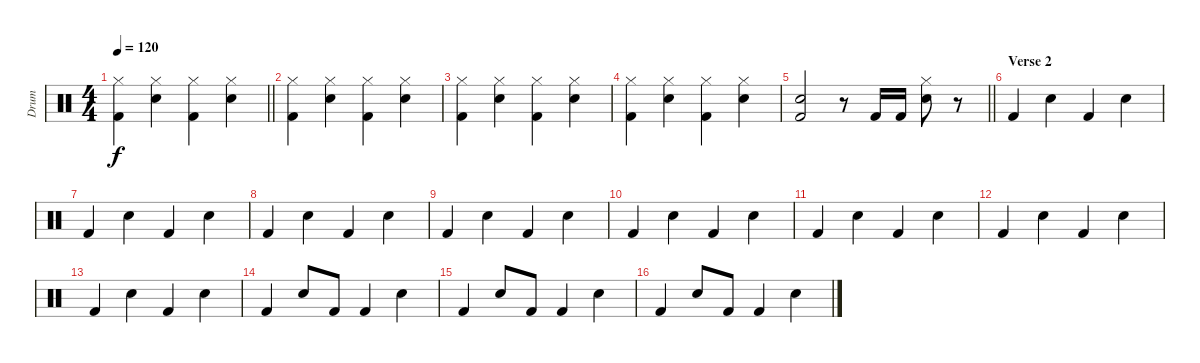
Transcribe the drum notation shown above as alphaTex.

\track ("Drum" "Drum") {instrument percussion}
\staff {score}
\articulation defaults
\ts (4 4)
\tempo 120
\clef neutral
\barLineRight lightlight
\ks c
("Hi-Hat (closed)" "Kick (hit) 2").4{dy f} ("Hi-Hat (closed)" "Electric Snare (hit)").4 ("Hi-Hat (closed)" "Kick (hit) 2").4 ("Hi-Hat (closed)" "Electric Snare (hit)").4 |
("Hi-Hat (closed)" "Kick (hit) 2").4 ("Hi-Hat (closed)" "Electric Snare (hit)").4 ("Hi-Hat (closed)" "Kick (hit) 2").4 ("Hi-Hat (closed)" "Electric Snare (hit)").4 |
("Hi-Hat (closed)" "Kick (hit) 2").4 ("Hi-Hat (closed)" "Electric Snare (hit)").4 ("Hi-Hat (closed)" "Kick (hit) 2").4 ("Hi-Hat (closed)" "Electric Snare (hit)").4 |
("Hi-Hat (closed)" "Kick (hit) 2").4 ("Hi-Hat (closed)" "Electric Snare (hit)").4 ("Hi-Hat (closed)" "Kick (hit) 2").4 ("Hi-Hat (closed)" "Electric Snare (hit)").4 |
\barLineRight lightlight
("Kick (hit) 2" "Electric Snare (hit)").2 r.8 "Kick (hit) 2".16 "Kick (hit) 2".16 ("Hi-Hat (closed)" "Electric Snare (hit)").8 r.8 |
\section ("" "Verse 2")
"Kick (hit) 2".4 "Electric Snare (hit)".4 "Kick (hit) 2".4 "Electric Snare (hit)".4 |
"Kick (hit) 2".4 "Electric Snare (hit)".4 "Kick (hit) 2".4 "Electric Snare (hit)".4 |
"Kick (hit) 2".4 "Electric Snare (hit)".4 "Kick (hit) 2".4 "Electric Snare (hit)".4 |
"Kick (hit) 2".4 "Electric Snare (hit)".4 "Kick (hit) 2".4 "Electric Snare (hit)".4 |
"Kick (hit) 2".4 "Electric Snare (hit)".4 "Kick (hit) 2".4 "Electric Snare (hit)".4 |
"Kick (hit) 2".4 "Electric Snare (hit)".4 "Kick (hit) 2".4 "Electric Snare (hit)".4 |
"Kick (hit) 2".4 "Electric Snare (hit)".4 "Kick (hit) 2".4 "Electric Snare (hit)".4 |
"Kick (hit) 2".4 "Electric Snare (hit)".4 "Kick (hit) 2".4 "Electric Snare (hit)".4 |
"Kick (hit) 2".4 "Electric Snare (hit)".8 "Kick (hit) 2".8 "Kick (hit) 2".4 "Electric Snare (hit)".4 |
"Kick (hit) 2".4 "Electric Snare (hit)".8 "Kick (hit) 2".8 "Kick (hit) 2".4 "Electric Snare (hit)".4 |
"Kick (hit) 2".4 "Electric Snare (hit)".8 "Kick (hit) 2".8 "Kick (hit) 2".4 "Electric Snare (hit)".4
